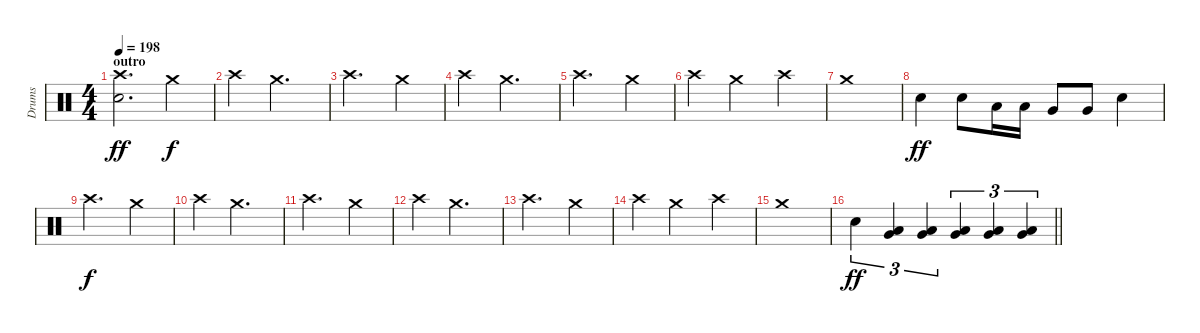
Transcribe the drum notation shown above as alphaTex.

\track ("Drums" "Drums") {instrument percussion}
\staff {score}
\articulation defaults
\ts (4 4)
\section ("" "outro")
\tempo 198
\clef neutral
\ks c
("Crash high (hit)" "Snare (hit) 2").2{d dy ff} "Crash medium (hit)".4{dy f} |
"Crash high (hit)".4 "Crash medium (hit)".2{d} |
"Crash high (hit)".2{d} "Crash medium (hit)".4 |
"Crash high (hit)".4 "Crash medium (hit)".2{d} |
"Crash high (hit)".2{d} "Crash medium (hit)".4 |
"Crash high (hit)".4 "Crash medium (hit)".2 "Crash high (hit)".4 |
"Crash medium (hit)".1 |
"Snare (hit) 2".4{dy ff} "Snare (hit) 2".8 "Low Tom (hit)".16 "Low Tom (hit)".16 "Very Low Tom (hit)".8 "Very Low Tom (hit)".8 "Snare (hit) 2".4 |
"Crash high (hit)".2{d dy f} "Crash medium (hit)".4 |
"Crash high (hit)".4 "Crash medium (hit)".2{d} |
"Crash high (hit)".2{d} "Crash medium (hit)".4 |
"Crash high (hit)".4 "Crash medium (hit)".2{d} |
"Crash high (hit)".2{d} "Crash medium (hit)".4 |
"Crash high (hit)".4 "Crash medium (hit)".2 "Crash high (hit)".4 |
"Crash medium (hit)".1 |
\barLineRight lightlight "Snare (hit) 2".4{tu (3 2) dy ff}
("Low Tom (hit)" "Very Low Tom (hit)").4{tu (3 2)} ("Low Tom (hit)" "Very Low Tom (hit)").4{tu (3 2)} ("Very Low Tom (hit)" "Low Floor Tom (hit)").4{tu (3 2)} ("Very Low Tom (hit)" "Low Floor Tom (hit)").4{tu (3 2)} ("Very Low Tom (hit)" "Low Floor Tom (hit)").4{tu (3 2)}
